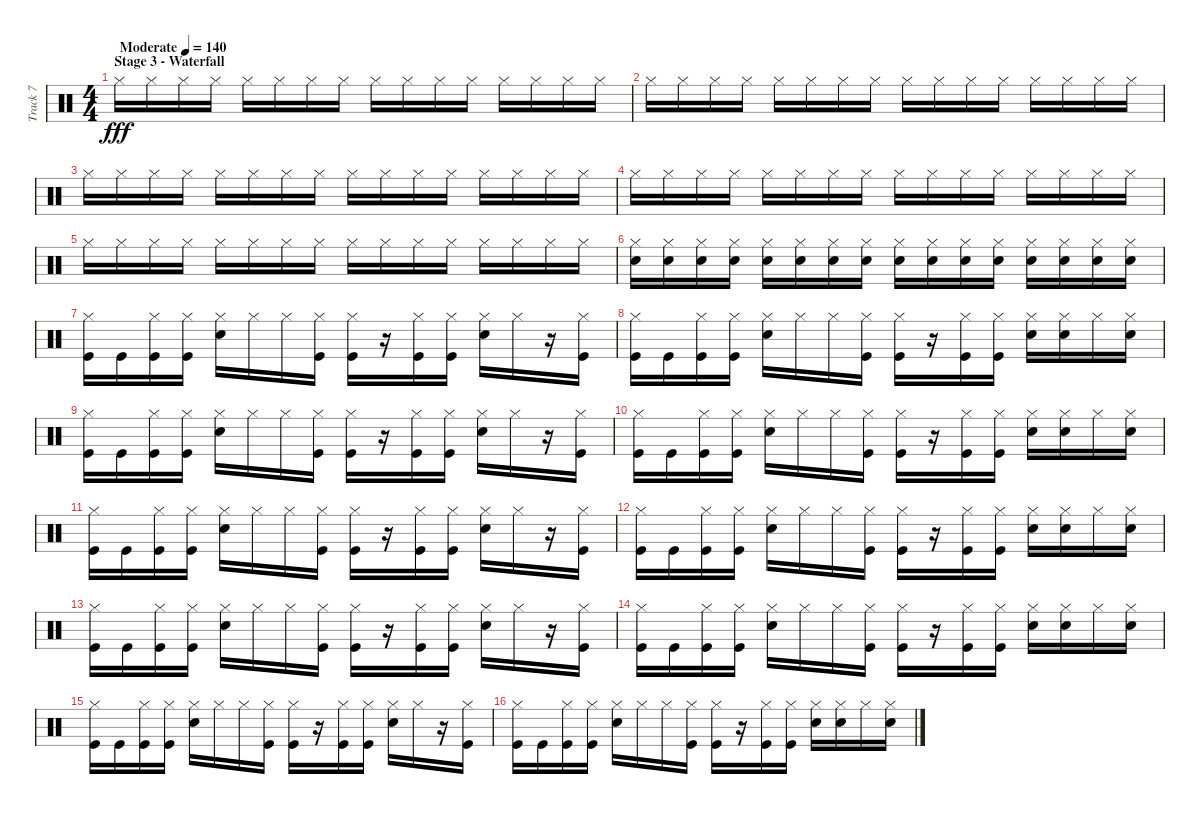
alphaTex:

\track ("Track 7" "Track 7") {instrument percussion}
\staff {score}
\articulation defaults
\ts (4 4)
\section ("" "Stage 3 - Waterfall")
\tempo (140 "Moderate")
\clef neutral
\ks c "Hi-Hat (closed)".16{dy fff} "Hi-Hat (closed)".16 "Hi-Hat (closed)".16 "Hi-Hat (closed)".16 "Hi-Hat (closed)".16 "Hi-Hat (closed)".16 "Hi-Hat (closed)".16 "Hi-Hat (closed)".16 "Hi-Hat (closed)".16 "Hi-Hat (closed)".16 "Hi-Hat (closed)".16 "Hi-Hat (closed)".16 "Hi-Hat (closed)".16 "Hi-Hat (closed)".16 "Hi-Hat (closed)".16 "Hi-Hat (closed)".16
|
"Hi-Hat (closed)".16 "Hi-Hat (closed)".16 "Hi-Hat (closed)".16 "Hi-Hat (closed)".16 "Hi-Hat (closed)".16 "Hi-Hat (closed)".16 "Hi-Hat (closed)".16 "Hi-Hat (closed)".16 "Hi-Hat (closed)".16 "Hi-Hat (closed)".16 "Hi-Hat (closed)".16 "Hi-Hat (closed)".16 "Hi-Hat (closed)".16 "Hi-Hat (closed)".16 "Hi-Hat (closed)".16 "Hi-Hat (closed)".16 |
"Hi-Hat (closed)".16 "Hi-Hat (closed)".16 "Hi-Hat (closed)".16 "Hi-Hat (closed)".16 "Hi-Hat (closed)".16 "Hi-Hat (closed)".16 "Hi-Hat (closed)".16 "Hi-Hat (closed)".16 "Hi-Hat (closed)".16 "Hi-Hat (closed)".16 "Hi-Hat (closed)".16 "Hi-Hat (closed)".16 "Hi-Hat (closed)".16 "Hi-Hat (closed)".16 "Hi-Hat (closed)".16 "Hi-Hat (closed)".16 |
"Hi-Hat (closed)".16 "Hi-Hat (closed)".16 "Hi-Hat (closed)".16 "Hi-Hat (closed)".16 "Hi-Hat (closed)".16 "Hi-Hat (closed)".16 "Hi-Hat (closed)".16 "Hi-Hat (closed)".16 "Hi-Hat (closed)".16 "Hi-Hat (closed)".16 "Hi-Hat (closed)".16 "Hi-Hat (closed)".16 "Hi-Hat (closed)".16 "Hi-Hat (closed)".16 "Hi-Hat (closed)".16 "Hi-Hat (closed)".16 |
"Hi-Hat (closed)".16 "Hi-Hat (closed)".16 "Hi-Hat (closed)".16 "Hi-Hat (closed)".16 "Hi-Hat (closed)".16 "Hi-Hat (closed)".16 "Hi-Hat (closed)".16 "Hi-Hat (closed)".16 "Hi-Hat (closed)".16 "Hi-Hat (closed)".16 "Hi-Hat (closed)".16 "Hi-Hat (closed)".16 "Hi-Hat (closed)".16 "Hi-Hat (closed)".16 "Hi-Hat (closed)".16 "Hi-Hat (closed)".16 |
("Snare (hit) 2" "Hi-Hat (closed)").16 ("Snare (hit) 2" "Hi-Hat (closed)").16 ("Snare (hit) 2" "Hi-Hat (closed)").16 ("Snare (hit) 2" "Hi-Hat (closed)").16 ("Snare (hit) 2" "Hi-Hat (closed)").16 ("Snare (hit) 2" "Hi-Hat (closed)").16 ("Snare (hit) 2" "Hi-Hat (closed)").16 ("Snare (hit) 2" "Hi-Hat (closed)").16 ("Snare (hit) 2" "Hi-Hat (closed)").16 ("Snare (hit) 2" "Hi-Hat (closed)").16 ("Snare (hit) 2" "Hi-Hat (closed)").16 ("Snare (hit) 2" "Hi-Hat (closed)").16 ("Snare (hit) 2" "Hi-Hat (closed)").16 ("Snare (hit) 2" "Hi-Hat (closed)").16 ("Snare (hit) 2" "Hi-Hat (closed)").16 ("Snare (hit) 2" "Hi-Hat (closed)").16 |
("Kick (hit)" "Hi-Hat (closed)").16 "Kick (hit)".16 ("Kick (hit)" "Hi-Hat (closed)").16 ("Kick (hit)" "Hi-Hat (closed)").16 ("Snare (hit) 2" "Hi-Hat (closed)").16 "Hi-Hat (closed)".16 "Hi-Hat (closed)".16 ("Kick (hit)" "Hi-Hat (closed)").16 ("Kick (hit)" "Hi-Hat (closed)").16 r.16 ("Kick (hit)" "Hi-Hat (closed)").16 ("Kick (hit)" "Hi-Hat (closed)").16 ("Snare (hit) 2" "Hi-Hat (closed)").16 "Hi-Hat (closed)".16 r.16 ("Kick (hit)" "Hi-Hat (closed)").16 |
("Kick (hit)" "Hi-Hat (closed)").16 "Kick (hit)".16 ("Kick (hit)" "Hi-Hat (closed)").16 ("Kick (hit)" "Hi-Hat (closed)").16 ("Snare (hit) 2" "Hi-Hat (closed)").16 "Hi-Hat (closed)".16 "Hi-Hat (closed)".16 ("Kick (hit)" "Hi-Hat (closed)").16 ("Kick (hit)" "Hi-Hat (closed)").16 r.16 ("Kick (hit)" "Hi-Hat (closed)").16 ("Kick (hit)" "Hi-Hat (closed)").16 ("Snare (hit) 2" "Hi-Hat (closed)").16 ("Snare (hit) 2" "Hi-Hat (closed)").16 "Hi-Hat (closed)".16 ("Snare (hit) 2" "Hi-Hat (closed)").16 |
("Kick (hit)" "Hi-Hat (closed)").16 "Kick (hit)".16 ("Kick (hit)" "Hi-Hat (closed)").16 ("Kick (hit)" "Hi-Hat (closed)").16 ("Snare (hit) 2" "Hi-Hat (closed)").16 "Hi-Hat (closed)".16 "Hi-Hat (closed)".16 ("Kick (hit)" "Hi-Hat (closed)").16 ("Kick (hit)" "Hi-Hat (closed)").16 r.16 ("Kick (hit)" "Hi-Hat (closed)").16 ("Kick (hit)" "Hi-Hat (closed)").16 ("Snare (hit) 2" "Hi-Hat (closed)").16 "Hi-Hat (closed)".16 r.16 ("Kick (hit)" "Hi-Hat (closed)").16 |
("Kick (hit)" "Hi-Hat (closed)").16 "Kick (hit)".16 ("Kick (hit)" "Hi-Hat (closed)").16 ("Kick (hit)" "Hi-Hat (closed)").16 ("Snare (hit) 2" "Hi-Hat (closed)").16 "Hi-Hat (closed)".16 "Hi-Hat (closed)".16 ("Kick (hit)" "Hi-Hat (closed)").16 ("Kick (hit)" "Hi-Hat (closed)").16 r.16 ("Kick (hit)" "Hi-Hat (closed)").16 ("Kick (hit)" "Hi-Hat (closed)").16 ("Snare (hit) 2" "Hi-Hat (closed)").16 ("Snare (hit) 2" "Hi-Hat (closed)").16 "Hi-Hat (closed)".16 ("Snare (hit) 2" "Hi-Hat (closed)").16 |
("Kick (hit)" "Hi-Hat (closed)").16 "Kick (hit)".16 ("Kick (hit)" "Hi-Hat (closed)").16 ("Kick (hit)" "Hi-Hat (closed)").16 ("Snare (hit) 2" "Hi-Hat (closed)").16 "Hi-Hat (closed)".16 "Hi-Hat (closed)".16 ("Kick (hit)" "Hi-Hat (closed)").16 ("Kick (hit)" "Hi-Hat (closed)").16 r.16 ("Kick (hit)" "Hi-Hat (closed)").16 ("Kick (hit)" "Hi-Hat (closed)").16 ("Snare (hit) 2" "Hi-Hat (closed)").16 "Hi-Hat (closed)".16 r.16 ("Kick (hit)" "Hi-Hat (closed)").16 |
("Kick (hit)" "Hi-Hat (closed)").16 "Kick (hit)".16 ("Kick (hit)" "Hi-Hat (closed)").16 ("Kick (hit)" "Hi-Hat (closed)").16 ("Snare (hit) 2" "Hi-Hat (closed)").16 "Hi-Hat (closed)".16 "Hi-Hat (closed)".16 ("Kick (hit)" "Hi-Hat (closed)").16 ("Kick (hit)" "Hi-Hat (closed)").16 r.16 ("Kick (hit)" "Hi-Hat (closed)").16 ("Kick (hit)" "Hi-Hat (closed)").16 ("Snare (hit) 2" "Hi-Hat (closed)").16 ("Snare (hit) 2" "Hi-Hat (closed)").16 "Hi-Hat (closed)".16 ("Snare (hit) 2" "Hi-Hat (closed)").16 |
("Kick (hit)" "Hi-Hat (closed)").16 "Kick (hit)".16 ("Kick (hit)" "Hi-Hat (closed)").16 ("Kick (hit)" "Hi-Hat (closed)").16 ("Snare (hit) 2" "Hi-Hat (closed)").16 "Hi-Hat (closed)".16 "Hi-Hat (closed)".16 ("Kick (hit)" "Hi-Hat (closed)").16 ("Kick (hit)" "Hi-Hat (closed)").16 r.16 ("Kick (hit)" "Hi-Hat (closed)").16 ("Kick (hit)" "Hi-Hat (closed)").16 ("Snare (hit) 2" "Hi-Hat (closed)").16 "Hi-Hat (closed)".16 r.16 ("Kick (hit)" "Hi-Hat (closed)").16 |
("Kick (hit)" "Hi-Hat (closed)").16 "Kick (hit)".16 ("Kick (hit)" "Hi-Hat (closed)").16 ("Kick (hit)" "Hi-Hat (closed)").16 ("Snare (hit) 2" "Hi-Hat (closed)").16 "Hi-Hat (closed)".16 "Hi-Hat (closed)".16 ("Kick (hit)" "Hi-Hat (closed)").16 ("Kick (hit)" "Hi-Hat (closed)").16 r.16 ("Kick (hit)" "Hi-Hat (closed)").16 ("Kick (hit)" "Hi-Hat (closed)").16 ("Snare (hit) 2" "Hi-Hat (closed)").16 ("Snare (hit) 2" "Hi-Hat (closed)").16 "Hi-Hat (closed)".16 ("Snare (hit) 2" "Hi-Hat (closed)").16 |
("Kick (hit)" "Hi-Hat (closed)").16 "Kick (hit)".16 ("Kick (hit)" "Hi-Hat (closed)").16 ("Kick (hit)" "Hi-Hat (closed)").16 ("Snare (hit) 2" "Hi-Hat (closed)").16 "Hi-Hat (closed)".16 "Hi-Hat (closed)".16 ("Kick (hit)" "Hi-Hat (closed)").16 ("Kick (hit)" "Hi-Hat (closed)").16 r.16 ("Kick (hit)" "Hi-Hat (closed)").16 ("Kick (hit)" "Hi-Hat (closed)").16 ("Snare (hit) 2" "Hi-Hat (closed)").16 "Hi-Hat (closed)".16 r.16 ("Kick (hit)" "Hi-Hat (closed)").16 |
("Kick (hit)" "Hi-Hat (closed)").16 "Kick (hit)".16 ("Kick (hit)" "Hi-Hat (closed)").16 ("Kick (hit)" "Hi-Hat (closed)").16 ("Snare (hit) 2" "Hi-Hat (closed)").16 "Hi-Hat (closed)".16 "Hi-Hat (closed)".16 ("Kick (hit)" "Hi-Hat (closed)").16 ("Kick (hit)" "Hi-Hat (closed)").16 r.16 ("Kick (hit)" "Hi-Hat (closed)").16 ("Kick (hit)" "Hi-Hat (closed)").16 ("Snare (hit) 2" "Hi-Hat (closed)").16 ("Snare (hit) 2" "Hi-Hat (closed)").16 "Hi-Hat (closed)".16 ("Snare (hit) 2" "Hi-Hat (closed)").16
